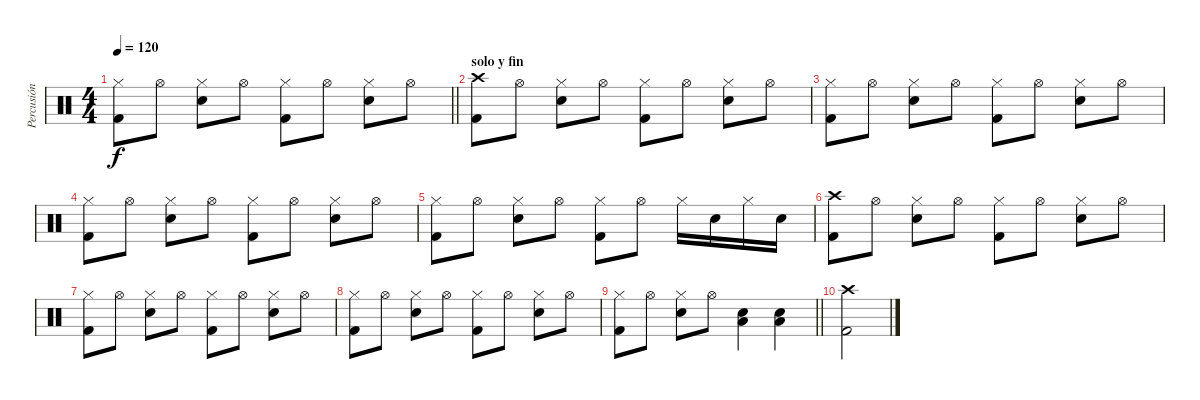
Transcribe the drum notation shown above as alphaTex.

\track ("Percusión" "Percusión") {instrument percussion}
\staff {score}
\articulation defaults
\ts (4 4)
\tempo 120
\clef neutral
\barLineRight lightlight
\ks c
("Hi-Hat (closed)" "Kick (hit) 2").8{dy f} "Hi-Hat (open)".8 ("Hi-Hat (closed)" "Electric Snare (hit)").8 "Hi-Hat (open)".8 ("Hi-Hat (closed)" "Kick (hit) 2").8 "Hi-Hat (open)".8 ("Hi-Hat (closed)" "Electric Snare (hit)").8 "Hi-Hat (open)".8 |
\section ("" "solo y fin")
("Crash high (hit)" "Kick (hit) 2").8 "Hi-Hat (open)".8 ("Hi-Hat (closed)" "Electric Snare (hit)").8 "Hi-Hat (open)".8 ("Hi-Hat (closed)" "Kick (hit) 2").8 "Hi-Hat (open)".8 ("Hi-Hat (closed)" "Electric Snare (hit)").8 "Hi-Hat (open)".8 |
("Hi-Hat (closed)" "Kick (hit) 2").8 "Hi-Hat (open)".8 ("Hi-Hat (closed)" "Electric Snare (hit)").8 "Hi-Hat (open)".8 ("Hi-Hat (closed)" "Kick (hit) 2").8 "Hi-Hat (open)".8 ("Hi-Hat (closed)" "Electric Snare (hit)").8 "Hi-Hat (open)".8 |
("Hi-Hat (closed)" "Kick (hit) 2").8 "Hi-Hat (open)".8 ("Hi-Hat (closed)" "Electric Snare (hit)").8 "Hi-Hat (open)".8 ("Hi-Hat (closed)" "Kick (hit) 2").8 "Hi-Hat (open)".8 ("Hi-Hat (closed)" "Electric Snare (hit)").8 "Hi-Hat (open)".8 |
("Hi-Hat (closed)" "Kick (hit) 2").8 "Hi-Hat (open)".8 ("Hi-Hat (closed)" "Electric Snare (hit)").8 "Hi-Hat (open)".8 ("Hi-Hat (closed)" "Kick (hit) 2").8 "Hi-Hat (open)".8 "Hi-Hat (closed)".16 "Electric Snare (hit)".16 "Hi-Hat (closed)".16 "Electric Snare (hit)".16 |
("Crash high (hit)" "Kick (hit) 2").8 "Hi-Hat (open)".8 ("Hi-Hat (closed)" "Electric Snare (hit)").8 "Hi-Hat (open)".8 ("Hi-Hat (closed)" "Kick (hit) 2").8 "Hi-Hat (open)".8 ("Hi-Hat (closed)" "Electric Snare (hit)").8 "Hi-Hat (open)".8 |
("Hi-Hat (closed)" "Kick (hit) 2").8 "Hi-Hat (open)".8 ("Hi-Hat (closed)" "Electric Snare (hit)").8 "Hi-Hat (open)".8 ("Hi-Hat (closed)" "Kick (hit) 2").8 "Hi-Hat (open)".8 ("Hi-Hat (closed)" "Electric Snare (hit)").8 "Hi-Hat (open)".8 |
("Hi-Hat (closed)" "Kick (hit) 2").8 "Hi-Hat (open)".8 ("Hi-Hat (closed)" "Electric Snare (hit)").8 "Hi-Hat (open)".8 ("Hi-Hat (closed)" "Kick (hit) 2").8 "Hi-Hat (open)".8 ("Hi-Hat (closed)" "Electric Snare (hit)").8 "Hi-Hat (open)".8 |
\barLineRight lightlight
("Hi-Hat (closed)" "Kick (hit) 2").8 "Hi-Hat (open)".8 ("Hi-Hat (closed)" "Electric Snare (hit)").8 "Hi-Hat (open)".8 ("Electric Snare (hit)" "Low Tom (hit)").4 ("Electric Snare (hit)" "Low Tom (hit)").4 |
("Crash high (hit)" "Kick (hit) 2").2
